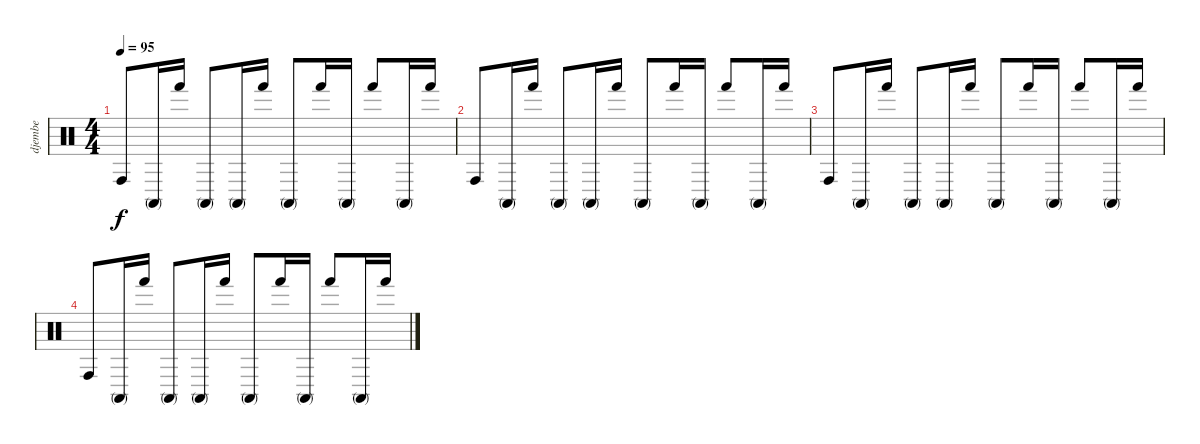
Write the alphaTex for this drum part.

\track ("djembe" "djembe") {instrument percussion}
\staff {score}
\articulation defaults
\ts (4 4)
\tempo 95
\clef neutral
\ks c "Conga high (hit)".8{dy f} "Conga high (mute)".16 "Hand (hit)".16 "Conga high (mute)".8 "Conga high (mute)".16 "Hand (hit)".16 "Conga high (mute)".8 "Hand (hit)".16 "Conga high (mute)".16 "Hand (hit)".8 "Conga high (mute)".16 "Hand (hit)".16
|
"Conga high (hit)".8 "Conga high (mute)".16 "Hand (hit)".16 "Conga high (mute)".8 "Conga high (mute)".16 "Hand (hit)".16 "Conga high (mute)".8 "Hand (hit)".16 "Conga high (mute)".16 "Hand (hit)".8 "Conga high (mute)".16 "Hand (hit)".16 |
"Conga high (hit)".8 "Conga high (mute)".16 "Hand (hit)".16 "Conga high (mute)".8 "Conga high (mute)".16 "Hand (hit)".16 "Conga high (mute)".8 "Hand (hit)".16 "Conga high (mute)".16 "Hand (hit)".8 "Conga high (mute)".16 "Hand (hit)".16 |
"Conga high (hit)".8 "Conga high (mute)".16 "Hand (hit)".16 "Conga high (mute)".8 "Conga high (mute)".16 "Hand (hit)".16 "Conga high (mute)".8 "Hand (hit)".16 "Conga high (mute)".16 "Hand (hit)".8 "Conga high (mute)".16 "Hand (hit)".16
